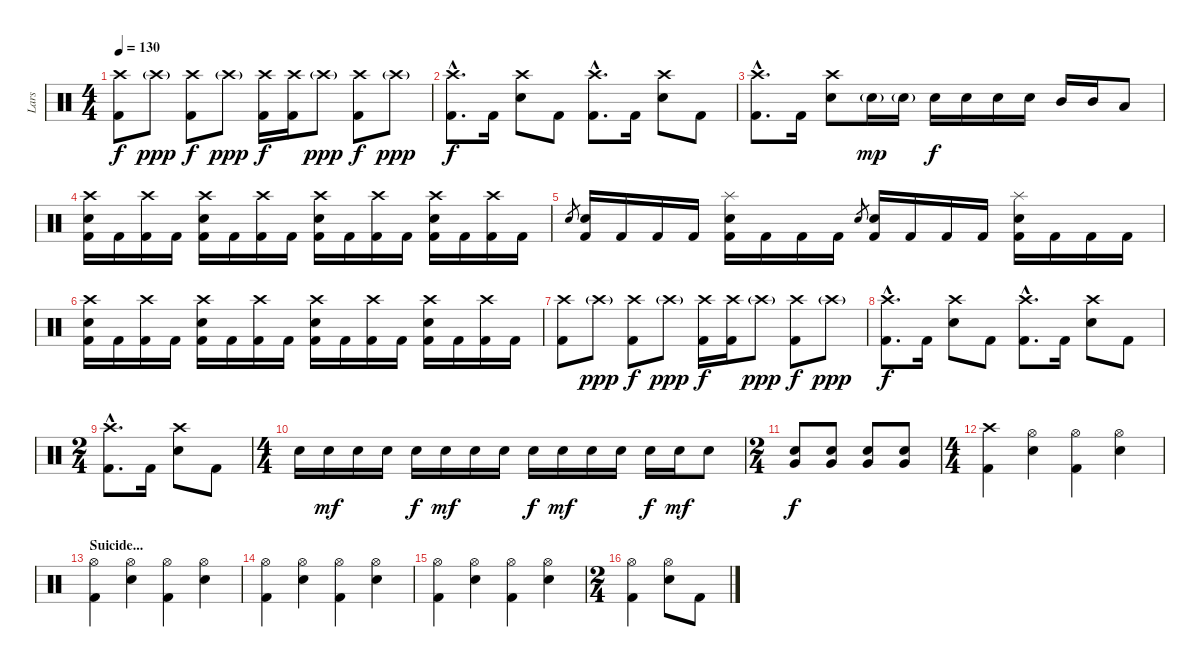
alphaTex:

\track ("Lars" "Lars") {instrument percussion}
\staff {score}
\articulation defaults
\ts (4 4)
\tempo 130
\clef neutral
\ks c
("Kick (hit) 2" "Crash high (hit)").8{dy f} "Crash high (hit)"{g}.8{dy ppp} ("Kick (hit) 2" "Crash high (hit)").8{dy f} "Crash high (hit)"{g}.8{dy ppp} ("Kick (hit) 2" "Crash high (hit)").16{dy f} ("Kick (hit) 2" "Crash high (hit)").16 "Crash high (hit)"{g}.8{dy ppp} ("Kick (hit) 2" "Crash high (hit)").8{dy f} "Crash high (hit)"{g}.8{dy ppp} |
\section ("" "")
("Kick (hit) 2"{hac} "Crash high (hit)"{hac}).8{d dy f} "Kick (hit) 2".16 ("Electric Snare (hit)" "Crash high (hit)").8 "Kick (hit) 2".8 ("Kick (hit) 2"{hac} "Crash high (hit)"{hac}).8{d} "Kick (hit) 2".16 ("Electric Snare (hit)" "Crash high (hit)").8 "Kick (hit) 2".8 |
("Kick (hit) 2"{hac} "Crash high (hit)"{hac}).8{d} "Kick (hit) 2".16 ("Electric Snare (hit)" "Crash high (hit)").8 "Electric Snare (hit)"{g}.16{dy mp} "Electric Snare (hit)"{g}.16 "Electric Snare (hit)".16{dy f} "Electric Snare (hit)".16 "Electric Snare (hit)".16 "Electric Snare (hit)".16 "Mid Tom (hit)".16 "Mid Tom (hit)".16 "Low Tom (hit)".8 |
\section ("" "")
("Kick (hit) 2" "Electric Snare (hit)" "Crash high (hit)").16 "Kick (hit) 2".16 ("Kick (hit) 2" "Crash high (hit)").16 "Kick (hit) 2".16 ("Kick (hit) 2" "Electric Snare (hit)" "Crash high (hit)").16 "Kick (hit) 2".16 ("Kick (hit) 2" "Crash high (hit)").16 "Kick (hit) 2".16 ("Kick (hit) 2" "Electric Snare (hit)" "Crash high (hit)").16 "Kick (hit) 2".16 ("Kick (hit) 2" "Crash high (hit)").16 "Kick (hit) 2".16 ("Kick (hit) 2" "Electric Snare (hit)" "Crash high (hit)").16 "Kick (hit) 2".16 ("Kick (hit) 2" "Crash high (hit)").16 "Kick (hit) 2".16 |
"Electric Snare (hit)".8{gr} ("Kick (hit) 2" "Electric Snare (hit)").16 "Kick (hit) 2".16 "Kick (hit) 2".16 "Kick (hit) 2".16 ("Kick (hit) 2" "Electric Snare (hit)" "Splash (hit)").16 "Kick (hit) 2".16 "Kick (hit) 2".16 "Kick (hit) 2".16 "Electric Snare (hit)".8{gr} ("Kick (hit) 2" "Electric Snare (hit)").16 "Kick (hit) 2".16 "Kick (hit) 2".16 "Kick (hit) 2".16 ("Kick (hit) 2" "Electric Snare (hit)" "Splash (hit)").16 "Kick (hit) 2".16 "Kick (hit) 2".16 "Kick (hit) 2".16 |
("Kick (hit) 2" "Electric Snare (hit)" "Crash high (hit)").16 "Kick (hit) 2".16 ("Kick (hit) 2" "Crash high (hit)").16 "Kick (hit) 2".16 ("Kick (hit) 2" "Electric Snare (hit)" "Crash high (hit)").16 "Kick (hit) 2".16 ("Kick (hit) 2" "Crash high (hit)").16 "Kick (hit) 2".16 ("Kick (hit) 2" "Electric Snare (hit)" "Crash high (hit)").16 "Kick (hit) 2".16 ("Kick (hit) 2" "Crash high (hit)").16 "Kick (hit) 2".16 ("Kick (hit) 2" "Electric Snare (hit)" "Crash high (hit)").16 "Kick (hit) 2".16 ("Kick (hit) 2" "Crash high (hit)").16 "Kick (hit) 2".16 |
("Kick (hit) 2" "Crash high (hit)").8 "Crash high (hit)"{g}.8{dy ppp} ("Kick (hit) 2" "Crash high (hit)").8{dy f} "Crash high (hit)"{g}.8{dy ppp} ("Kick (hit) 2" "Crash high (hit)").16{dy f} ("Kick (hit) 2" "Crash high (hit)").16 "Crash high (hit)"{g}.8{dy ppp} ("Kick (hit) 2" "Crash high (hit)").8{dy f} "Crash high (hit)"{g}.8{dy ppp} |
("Kick (hit) 2"{hac} "Crash high (hit)"{hac}).8{d dy f} "Kick (hit) 2".16 ("Electric Snare (hit)" "Crash high (hit)").8 "Kick (hit) 2".8 ("Kick (hit) 2"{hac} "Crash high (hit)"{hac}).8{d} "Kick (hit) 2".16 ("Electric Snare (hit)" "Crash high (hit)").8 "Kick (hit) 2".8 |
\ts (2 4)
("Kick (hit) 2"{hac} "Crash high (hit)"{hac}).8{d} "Kick (hit) 2".16 ("Electric Snare (hit)" "Crash high (hit)").8 "Kick (hit) 2".8 |
\ts (4 4)
"Electric Snare (hit)".16 "Electric Snare (hit)".16{dy mf} "Electric Snare (hit)".16 "Electric Snare (hit)".16 "Electric Snare (hit)".16{dy f} "Electric Snare (hit)".16{dy mf} "Electric Snare (hit)".16 "Electric Snare (hit)".16 "Electric Snare (hit)".16{dy f} "Electric Snare (hit)".16{dy mf} "Electric Snare (hit)".16 "Electric Snare (hit)".16 "Electric Snare (hit)".16{dy f} "Electric Snare (hit)".16{dy mf} "Electric Snare (hit)".8 |
\ts (2 4)
("Electric Snare (hit)" "Very Low Tom (hit)").8{bu 120 dy f} ("Electric Snare (hit)" "Very Low Tom (hit)").8{bu 120} ("Electric Snare (hit)" "Very Low Tom (hit)").8{bu 120} ("Electric Snare (hit)" "Very Low Tom (hit)").8{bu 120} |
\ts (4 4)
("Kick (hit) 2" "Crash high (hit)").4 ("Electric Snare (hit)" "Hi-Hat (open)").4 ("Kick (hit) 2" "Hi-Hat (open)").4 ("Electric Snare (hit)" "Hi-Hat (open)").4 |
\section ("" "Suicide...")
("Kick (hit) 2" "Hi-Hat (open)").4 ("Electric Snare (hit)" "Hi-Hat (open)").4 ("Kick (hit) 2" "Hi-Hat (open)").4 ("Electric Snare (hit)" "Hi-Hat (open)").4 |
("Kick (hit) 2" "Hi-Hat (open)").4 ("Electric Snare (hit)" "Hi-Hat (open)").4 ("Kick (hit) 2" "Hi-Hat (open)").4 ("Electric Snare (hit)" "Hi-Hat (open)").4 |
("Kick (hit) 2" "Hi-Hat (open)").4 ("Electric Snare (hit)" "Hi-Hat (open)").4 ("Kick (hit) 2" "Hi-Hat (open)").4 ("Electric Snare (hit)" "Hi-Hat (open)").4 |
\ts (2 4)
("Kick (hit) 2" "Hi-Hat (open)").4 ("Electric Snare (hit)" "Hi-Hat (open)").8 "Kick (hit) 2".8
